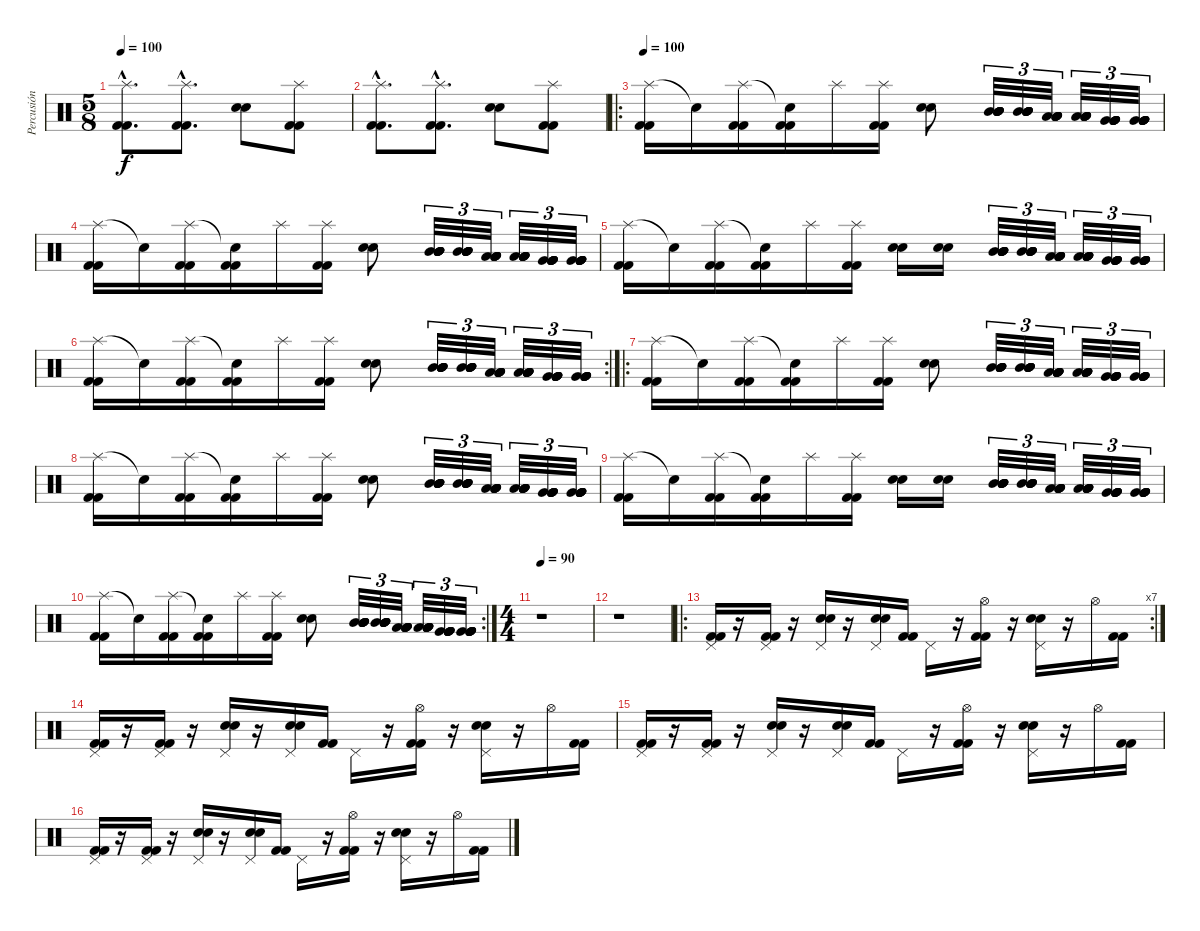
\track ("Percusión" "Percusión") {instrument percussion}
\staff {score}
\articulation defaults
\ts (5 8)
\tempo 100
\clef neutral
\ks c
("Splash (hit)"{hac} "Kick (hit) 2"{hac} "Kick (hit) 2"{hac}).8{d dy f} ("Splash (hit)"{hac} "Kick (hit) 2"{hac} "Kick (hit) 2"{hac}).8{d} ("Electric Snare (hit)" "Electric Snare (hit)").8 ("Splash (hit)" "Kick (hit) 2" "Kick (hit) 2").8 |
("Splash (hit)"{hac} "Kick (hit) 2"{hac} "Kick (hit) 2"{hac}).8{d} ("Splash (hit)"{hac} "Kick (hit) 2"{hac} "Kick (hit) 2"{hac}).8{d} ("Electric Snare (hit)" "Electric Snare (hit)").8 ("Splash (hit)" "Kick (hit) 2" "Kick (hit) 2").8 |
\ro
\tempo 100
("Splash (hit)" "Kick (hit) 2" "Kick (hit) 2").16 "Snare (hit)"{t}.16 ("Splash (hit)" "Kick (hit) 2" "Kick (hit) 2").16 ("Snare (hit)"{t} "Kick (hit) 2" "Kick (hit) 2").16 "Splash (hit)".16 ("Splash (hit)" "Kick (hit) 2" "Kick (hit) 2").16 ("Electric Snare (hit)" "Electric Snare (hit)").8 ("Mid Tom (hit)" "Mid Tom (hit)" "Mid Tom (hit)" "Mid Tom (hit)" "Mid Tom (hit)" "Mid Tom (hit)").32{tu (3 2)} ("Mid Tom (hit)" "Mid Tom (hit)" "Mid Tom (hit)" "Mid Tom (hit)" "Mid Tom (hit)" "Mid Tom (hit)").32{tu (3 2)} ("Low Tom (hit)" "Low Tom (hit)" "Low Tom (hit)" "Low Tom (hit)" "Low Tom (hit)" "Low Tom (hit)").32{tu (3 2)} ("Low Tom (hit)" "Low Tom (hit)" "Low Tom (hit)" "Low Tom (hit)" "Low Tom (hit)" "Low Tom (hit)").32{tu (3 2)} ("Very Low Tom (hit)" "Very Low Tom (hit)" "Very Low Tom (hit)" "Very Low Tom (hit)" "Very Low Tom (hit)" "Very Low Tom (hit)").32{tu (3 2)} ("Very Low Tom (hit)" "Very Low Tom (hit)" "Very Low Tom (hit)" "Very Low Tom (hit)" "Very Low Tom (hit)" "Very Low Tom (hit)").32{tu (3 2)} |
("Splash (hit)" "Kick (hit) 2" "Kick (hit) 2").16 "Snare (hit)"{t}.16 ("Splash (hit)" "Kick (hit) 2" "Kick (hit) 2").16 ("Snare (hit)"{t} "Kick (hit) 2" "Kick (hit) 2").16 "Splash (hit)".16 ("Splash (hit)" "Kick (hit) 2" "Kick (hit) 2").16 ("Electric Snare (hit)" "Electric Snare (hit)").8 ("Mid Tom (hit)" "Mid Tom (hit)" "Mid Tom (hit)" "Mid Tom (hit)" "Mid Tom (hit)" "Mid Tom (hit)").32{tu (3 2)} ("Mid Tom (hit)" "Mid Tom (hit)" "Mid Tom (hit)" "Mid Tom (hit)" "Mid Tom (hit)" "Mid Tom (hit)").32{tu (3 2)} ("Low Tom (hit)" "Low Tom (hit)" "Low Tom (hit)" "Low Tom (hit)" "Low Tom (hit)" "Low Tom (hit)").32{tu (3 2)} ("Low Tom (hit)" "Low Tom (hit)" "Low Tom (hit)" "Low Tom (hit)" "Low Tom (hit)" "Low Tom (hit)").32{tu (3 2)} ("Very Low Tom (hit)" "Very Low Tom (hit)" "Very Low Tom (hit)" "Very Low Tom (hit)" "Very Low Tom (hit)" "Very Low Tom (hit)").32{tu (3 2)} ("Very Low Tom (hit)" "Very Low Tom (hit)" "Very Low Tom (hit)" "Very Low Tom (hit)" "Very Low Tom (hit)" "Very Low Tom (hit)").32{tu (3 2)} |
("Splash (hit)" "Kick (hit) 2" "Kick (hit) 2").16 "Snare (hit)"{t}.16 ("Splash (hit)" "Kick (hit) 2" "Kick (hit) 2").16 ("Snare (hit)"{t} "Kick (hit) 2" "Kick (hit) 2").16 "Splash (hit)".16 ("Splash (hit)" "Kick (hit) 2" "Kick (hit) 2").16 ("Electric Snare (hit)" "Electric Snare (hit)").16 ("Electric Snare (hit)" "Electric Snare (hit)").16 ("Mid Tom (hit)" "Mid Tom (hit)" "Mid Tom (hit)" "Mid Tom (hit)" "Mid Tom (hit)" "Mid Tom (hit)").32{tu (3 2)} ("Mid Tom (hit)" "Mid Tom (hit)" "Mid Tom (hit)" "Mid Tom (hit)" "Mid Tom (hit)" "Mid Tom (hit)").32{tu (3 2)} ("Low Tom (hit)" "Low Tom (hit)" "Low Tom (hit)" "Low Tom (hit)" "Low Tom (hit)" "Low Tom (hit)").32{tu (3 2)} ("Low Tom (hit)" "Low Tom (hit)" "Low Tom (hit)" "Low Tom (hit)" "Low Tom (hit)" "Low Tom (hit)").32{tu (3 2)} ("Very Low Tom (hit)" "Very Low Tom (hit)" "Very Low Tom (hit)" "Very Low Tom (hit)" "Very Low Tom (hit)" "Very Low Tom (hit)").32{tu (3 2)} ("Very Low Tom (hit)" "Very Low Tom (hit)" "Very Low Tom (hit)" "Very Low Tom (hit)" "Very Low Tom (hit)" "Very Low Tom (hit)").32{tu (3 2)} |
\rc 2
("Splash (hit)" "Kick (hit) 2" "Kick (hit) 2").16 "Snare (hit)"{t}.16 ("Splash (hit)" "Kick (hit) 2" "Kick (hit) 2").16 ("Snare (hit)"{t} "Kick (hit) 2" "Kick (hit) 2").16 "Splash (hit)".16 ("Splash (hit)" "Kick (hit) 2" "Kick (hit) 2").16 ("Electric Snare (hit)" "Electric Snare (hit)").8 ("Mid Tom (hit)" "Mid Tom (hit)" "Mid Tom (hit)" "Mid Tom (hit)" "Mid Tom (hit)" "Mid Tom (hit)").32{tu (3 2)} ("Mid Tom (hit)" "Mid Tom (hit)" "Mid Tom (hit)" "Mid Tom (hit)" "Mid Tom (hit)" "Mid Tom (hit)").32{tu (3 2)} ("Low Tom (hit)" "Low Tom (hit)" "Low Tom (hit)" "Low Tom (hit)" "Low Tom (hit)" "Low Tom (hit)").32{tu (3 2)} ("Low Tom (hit)" "Low Tom (hit)" "Low Tom (hit)" "Low Tom (hit)" "Low Tom (hit)" "Low Tom (hit)").32{tu (3 2)} ("Very Low Tom (hit)" "Very Low Tom (hit)" "Very Low Tom (hit)" "Very Low Tom (hit)" "Very Low Tom (hit)" "Very Low Tom (hit)").32{tu (3 2)} ("Very Low Tom (hit)" "Very Low Tom (hit)" "Very Low Tom (hit)" "Very Low Tom (hit)" "Very Low Tom (hit)" "Very Low Tom (hit)").32{tu (3 2)} |
\ro
("Splash (hit)" "Kick (hit) 2" "Kick (hit) 2").16 "Snare (hit)"{t}.16 ("Splash (hit)" "Kick (hit) 2" "Kick (hit) 2").16 ("Snare (hit)"{t} "Kick (hit) 2" "Kick (hit) 2").16 "Splash (hit)".16 ("Splash (hit)" "Kick (hit) 2" "Kick (hit) 2").16 ("Electric Snare (hit)" "Electric Snare (hit)").8 ("Mid Tom (hit)" "Mid Tom (hit)" "Mid Tom (hit)" "Mid Tom (hit)" "Mid Tom (hit)" "Mid Tom (hit)").32{tu (3 2)} ("Mid Tom (hit)" "Mid Tom (hit)" "Mid Tom (hit)" "Mid Tom (hit)" "Mid Tom (hit)" "Mid Tom (hit)").32{tu (3 2)} ("Low Tom (hit)" "Low Tom (hit)" "Low Tom (hit)" "Low Tom (hit)" "Low Tom (hit)" "Low Tom (hit)").32{tu (3 2)} ("Low Tom (hit)" "Low Tom (hit)" "Low Tom (hit)" "Low Tom (hit)" "Low Tom (hit)" "Low Tom (hit)").32{tu (3 2)} ("Very Low Tom (hit)" "Very Low Tom (hit)" "Very Low Tom (hit)" "Very Low Tom (hit)" "Very Low Tom (hit)" "Very Low Tom (hit)").32{tu (3 2)} ("Very Low Tom (hit)" "Very Low Tom (hit)" "Very Low Tom (hit)" "Very Low Tom (hit)" "Very Low Tom (hit)" "Very Low Tom (hit)").32{tu (3 2)} |
("Splash (hit)" "Kick (hit) 2" "Kick (hit) 2").16 "Snare (hit)"{t}.16 ("Splash (hit)" "Kick (hit) 2" "Kick (hit) 2").16 ("Snare (hit)"{t} "Kick (hit) 2" "Kick (hit) 2").16 "Splash (hit)".16 ("Splash (hit)" "Kick (hit) 2" "Kick (hit) 2").16 ("Electric Snare (hit)" "Electric Snare (hit)").8 ("Mid Tom (hit)" "Mid Tom (hit)" "Mid Tom (hit)" "Mid Tom (hit)" "Mid Tom (hit)" "Mid Tom (hit)").32{tu (3 2)} ("Mid Tom (hit)" "Mid Tom (hit)" "Mid Tom (hit)" "Mid Tom (hit)" "Mid Tom (hit)" "Mid Tom (hit)").32{tu (3 2)} ("Low Tom (hit)" "Low Tom (hit)" "Low Tom (hit)" "Low Tom (hit)" "Low Tom (hit)" "Low Tom (hit)").32{tu (3 2)} ("Low Tom (hit)" "Low Tom (hit)" "Low Tom (hit)" "Low Tom (hit)" "Low Tom (hit)" "Low Tom (hit)").32{tu (3 2)} ("Very Low Tom (hit)" "Very Low Tom (hit)" "Very Low Tom (hit)" "Very Low Tom (hit)" "Very Low Tom (hit)" "Very Low Tom (hit)").32{tu (3 2)} ("Very Low Tom (hit)" "Very Low Tom (hit)" "Very Low Tom (hit)" "Very Low Tom (hit)" "Very Low Tom (hit)" "Very Low Tom (hit)").32{tu (3 2)} |
("Splash (hit)" "Kick (hit) 2" "Kick (hit) 2").16 "Snare (hit)"{t}.16 ("Splash (hit)" "Kick (hit) 2" "Kick (hit) 2").16 ("Snare (hit)"{t} "Kick (hit) 2" "Kick (hit) 2").16 "Splash (hit)".16 ("Splash (hit)" "Kick (hit) 2" "Kick (hit) 2").16 ("Electric Snare (hit)" "Electric Snare (hit)").16 ("Electric Snare (hit)" "Electric Snare (hit)").16 ("Mid Tom (hit)" "Mid Tom (hit)" "Mid Tom (hit)" "Mid Tom (hit)" "Mid Tom (hit)" "Mid Tom (hit)").32{tu (3 2)} ("Mid Tom (hit)" "Mid Tom (hit)" "Mid Tom (hit)" "Mid Tom (hit)" "Mid Tom (hit)" "Mid Tom (hit)").32{tu (3 2)} ("Low Tom (hit)" "Low Tom (hit)" "Low Tom (hit)" "Low Tom (hit)" "Low Tom (hit)" "Low Tom (hit)").32{tu (3 2)} ("Low Tom (hit)" "Low Tom (hit)" "Low Tom (hit)" "Low Tom (hit)" "Low Tom (hit)" "Low Tom (hit)").32{tu (3 2)} ("Very Low Tom (hit)" "Very Low Tom (hit)" "Very Low Tom (hit)" "Very Low Tom (hit)" "Very Low Tom (hit)" "Very Low Tom (hit)").32{tu (3 2)} ("Very Low Tom (hit)" "Very Low Tom (hit)" "Very Low Tom (hit)" "Very Low Tom (hit)" "Very Low Tom (hit)" "Very Low Tom (hit)").32{tu (3 2)} |
\rc 2
("Splash (hit)" "Kick (hit) 2" "Kick (hit) 2").16 "Snare (hit)"{t}.16 ("Splash (hit)" "Kick (hit) 2" "Kick (hit) 2").16 ("Snare (hit)"{t} "Kick (hit) 2" "Kick (hit) 2").16 "Splash (hit)".16 ("Splash (hit)" "Kick (hit) 2" "Kick (hit) 2").16 ("Electric Snare (hit)" "Electric Snare (hit)").8 ("Mid Tom (hit)" "Mid Tom (hit)" "Mid Tom (hit)" "Mid Tom (hit)" "Mid Tom (hit)" "Mid Tom (hit)").32{tu (3 2)} ("Mid Tom (hit)" "Mid Tom (hit)" "Mid Tom (hit)" "Mid Tom (hit)" "Mid Tom (hit)" "Mid Tom (hit)").32{tu (3 2)} ("Low Tom (hit)" "Low Tom (hit)" "Low Tom (hit)" "Low Tom (hit)" "Low Tom (hit)" "Low Tom (hit)").32{tu (3 2)} ("Low Tom (hit)" "Low Tom (hit)" "Low Tom (hit)" "Low Tom (hit)" "Low Tom (hit)" "Low Tom (hit)").32{tu (3 2)} ("Very Low Tom (hit)" "Very Low Tom (hit)" "Very Low Tom (hit)" "Very Low Tom (hit)" "Very Low Tom (hit)" "Very Low Tom (hit)").32{tu (3 2)} ("Very Low Tom (hit)" "Very Low Tom (hit)" "Very Low Tom (hit)" "Very Low Tom (hit)" "Very Low Tom (hit)" "Very Low Tom (hit)").32{tu (3 2)} |
\ts (4 4)
\tempo 90
r.1 |
r.1 |
\ro
\rc 7
("Pedal Hi-Hat (hit)" "Kick (hit) 2" "Kick (hit) 2").16 r.16 ("Pedal Hi-Hat (hit)" "Kick (hit) 2" "Kick (hit) 2").16 r.16 ("Pedal Hi-Hat (hit)" "Electric Snare (hit)" "Electric Snare (hit)").16 r.16 ("Pedal Hi-Hat (hit)" "Electric Snare (hit)" "Electric Snare (hit)").16 ("Kick (hit) 2" "Kick (hit) 2").16 "Pedal Hi-Hat (hit)".16 r.16 ("Hi-Hat (open)" "Kick (hit) 2" "Kick (hit) 2").16 r.16 ("Pedal Hi-Hat (hit)" "Electric Snare (hit)" "Electric Snare (hit)").16 r.16 "Hi-Hat (open)".16 ("Kick (hit) 2" "Kick (hit) 2").16 |
("Pedal Hi-Hat (hit)" "Kick (hit) 2" "Kick (hit) 2").16 r.16 ("Pedal Hi-Hat (hit)" "Kick (hit) 2" "Kick (hit) 2").16 r.16 ("Pedal Hi-Hat (hit)" "Electric Snare (hit)" "Electric Snare (hit)").16 r.16 ("Pedal Hi-Hat (hit)" "Electric Snare (hit)" "Electric Snare (hit)").16 ("Kick (hit) 2" "Kick (hit) 2").16 "Pedal Hi-Hat (hit)".16 r.16 ("Hi-Hat (open)" "Kick (hit) 2" "Kick (hit) 2").16 r.16 ("Pedal Hi-Hat (hit)" "Electric Snare (hit)" "Electric Snare (hit)").16 r.16 "Hi-Hat (open)".16 ("Kick (hit) 2" "Kick (hit) 2").16 |
("Pedal Hi-Hat (hit)" "Kick (hit) 2" "Kick (hit) 2").16 r.16 ("Pedal Hi-Hat (hit)" "Kick (hit) 2" "Kick (hit) 2").16 r.16 ("Pedal Hi-Hat (hit)" "Electric Snare (hit)" "Electric Snare (hit)").16 r.16 ("Pedal Hi-Hat (hit)" "Electric Snare (hit)" "Electric Snare (hit)").16 ("Kick (hit) 2" "Kick (hit) 2").16 "Pedal Hi-Hat (hit)".16 r.16 ("Hi-Hat (open)" "Kick (hit) 2" "Kick (hit) 2").16 r.16 ("Pedal Hi-Hat (hit)" "Electric Snare (hit)" "Electric Snare (hit)").16 r.16 "Hi-Hat (open)".16 ("Kick (hit) 2" "Kick (hit) 2").16 |
("Pedal Hi-Hat (hit)" "Kick (hit) 2" "Kick (hit) 2").16 r.16 ("Pedal Hi-Hat (hit)" "Kick (hit) 2" "Kick (hit) 2").16 r.16 ("Pedal Hi-Hat (hit)" "Electric Snare (hit)" "Electric Snare (hit)").16 r.16 ("Pedal Hi-Hat (hit)" "Electric Snare (hit)" "Electric Snare (hit)").16 ("Kick (hit) 2" "Kick (hit) 2").16 "Pedal Hi-Hat (hit)".16 r.16 ("Hi-Hat (open)" "Kick (hit) 2" "Kick (hit) 2").16 r.16 ("Pedal Hi-Hat (hit)" "Electric Snare (hit)" "Electric Snare (hit)").16 r.16 "Hi-Hat (open)".16 ("Kick (hit) 2" "Kick (hit) 2").16
